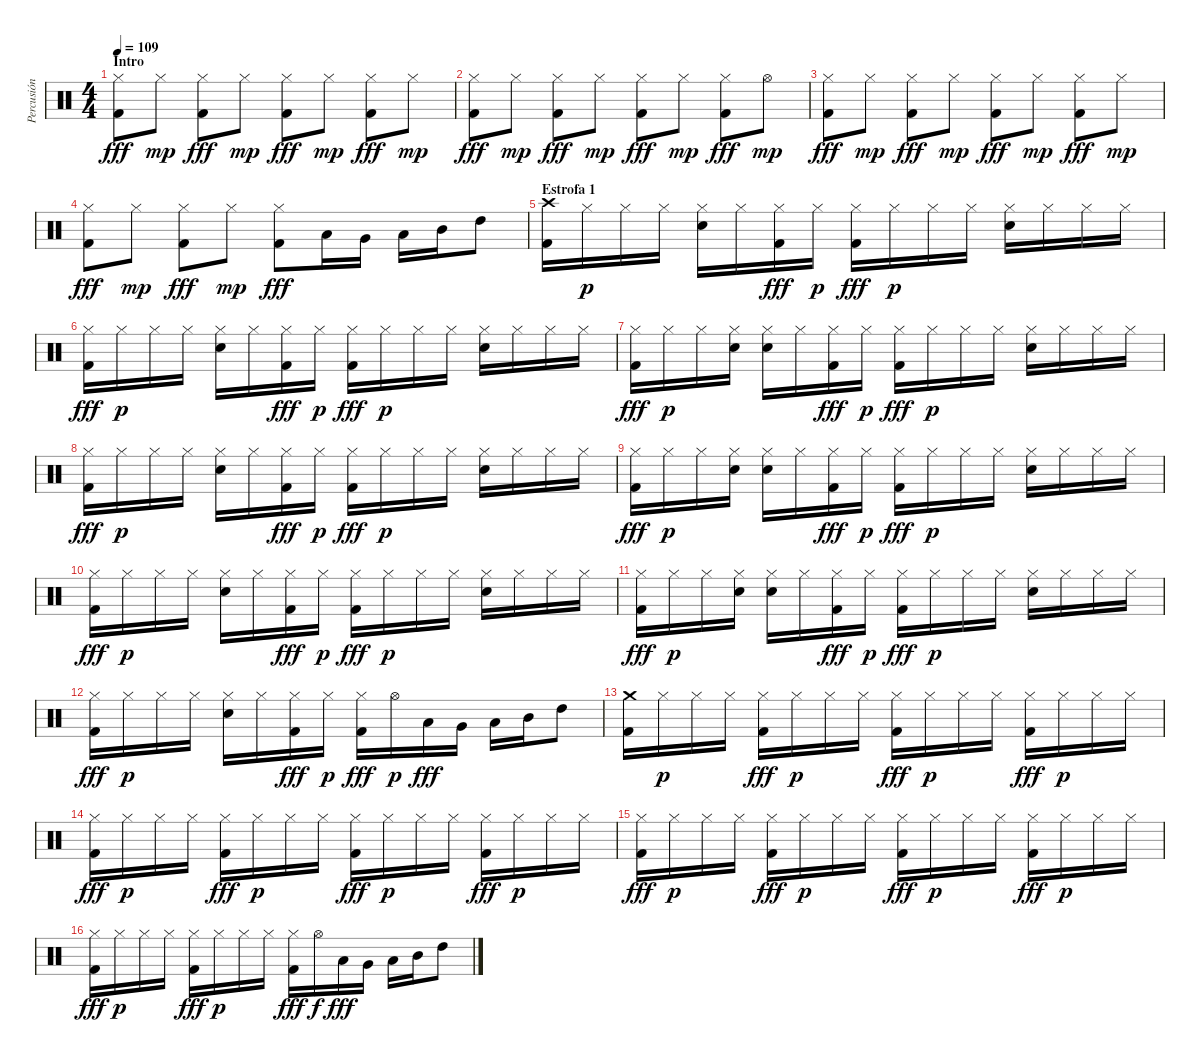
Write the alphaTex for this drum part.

\track ("Percusión" "Percusión") {instrument percussion}
\staff {score}
\articulation defaults
\ts (4 4)
\section ("" "Intro")
\tempo 109
\clef neutral
\ks c
("Hi-Hat (closed)" "Kick (hit) 2").8{dy fff} "Hi-Hat (closed)".8{dy mp} ("Hi-Hat (closed)" "Kick (hit) 2").8{dy fff} "Hi-Hat (closed)".8{dy mp} ("Hi-Hat (closed)" "Kick (hit) 2").8{dy fff} "Hi-Hat (closed)".8{dy mp} ("Hi-Hat (closed)" "Kick (hit) 2").8{dy fff} "Hi-Hat (closed)".8{dy mp} |
("Hi-Hat (closed)" "Kick (hit) 2").8{dy fff} "Hi-Hat (closed)".8{dy mp} ("Hi-Hat (closed)" "Kick (hit) 2").8{dy fff} "Hi-Hat (closed)".8{dy mp} ("Hi-Hat (closed)" "Kick (hit) 2").8{dy fff} "Hi-Hat (closed)".8{dy mp} ("Hi-Hat (closed)" "Kick (hit) 2").8{dy fff} "Hi-Hat (open)".8{dy mp} |
("Hi-Hat (closed)" "Kick (hit) 2").8{dy fff} "Hi-Hat (closed)".8{dy mp} ("Hi-Hat (closed)" "Kick (hit) 2").8{dy fff} "Hi-Hat (closed)".8{dy mp} ("Hi-Hat (closed)" "Kick (hit) 2").8{dy fff} "Hi-Hat (closed)".8{dy mp} ("Hi-Hat (closed)" "Kick (hit) 2").8{dy fff} "Hi-Hat (closed)".8{dy mp} |
("Hi-Hat (closed)" "Kick (hit) 2").8{dy fff} "Hi-Hat (closed)".8{dy mp} ("Hi-Hat (closed)" "Kick (hit) 2").8{dy fff} "Hi-Hat (closed)".8{dy mp} ("Hi-Hat (closed)" "Kick (hit) 2").8{dy fff} "Low Floor Tom (hit)".16 "Very Low Tom (hit)".16 "Low Tom (hit)".16 "Mid Tom (hit)".16 "High Tom (hit)".8 |
\section ("" "Estrofa 1")
("Crash high (hit)" "Kick (hit) 2").16 "Hi-Hat (closed)".16{dy p} "Hi-Hat (closed)".16 "Hi-Hat (closed)".16 ("Hi-Hat (closed)" "Snare (hit) 2").16 "Hi-Hat (closed)".16 ("Hi-Hat (closed)" "Kick (hit) 2").16{dy fff} "Hi-Hat (closed)".16{dy p} ("Hi-Hat (closed)" "Kick (hit) 2").16{dy fff} "Hi-Hat (closed)".16{dy p} "Hi-Hat (closed)".16 "Hi-Hat (closed)".16 ("Hi-Hat (closed)" "Snare (hit) 2").16 "Hi-Hat (closed)".16 "Hi-Hat (closed)".16 "Hi-Hat (closed)".16 |
("Hi-Hat (closed)" "Kick (hit) 2").16{dy fff} "Hi-Hat (closed)".16{dy p} "Hi-Hat (closed)".16 "Hi-Hat (closed)".16 ("Hi-Hat (closed)" "Snare (hit) 2").16 "Hi-Hat (closed)".16 ("Hi-Hat (closed)" "Kick (hit) 2").16{dy fff} "Hi-Hat (closed)".16{dy p} ("Hi-Hat (closed)" "Kick (hit) 2").16{dy fff} "Hi-Hat (closed)".16{dy p} "Hi-Hat (closed)".16 "Hi-Hat (closed)".16 ("Hi-Hat (closed)" "Snare (hit) 2").16 "Hi-Hat (closed)".16 "Hi-Hat (closed)".16 "Hi-Hat (closed)".16 |
("Hi-Hat (closed)" "Kick (hit) 2").16{dy fff} "Hi-Hat (closed)".16{dy p} "Hi-Hat (closed)".16 ("Hi-Hat (closed)" "Snare (hit) 2").16 ("Hi-Hat (closed)" "Snare (hit) 2").16 "Hi-Hat (closed)".16 ("Hi-Hat (closed)" "Kick (hit) 2").16{dy fff} "Hi-Hat (closed)".16{dy p} ("Hi-Hat (closed)" "Kick (hit) 2").16{dy fff} "Hi-Hat (closed)".16{dy p} "Hi-Hat (closed)".16 "Hi-Hat (closed)".16 ("Hi-Hat (closed)" "Snare (hit) 2").16 "Hi-Hat (closed)".16 "Hi-Hat (closed)".16 "Hi-Hat (closed)".16 |
("Hi-Hat (closed)" "Kick (hit) 2").16{dy fff} "Hi-Hat (closed)".16{dy p} "Hi-Hat (closed)".16 "Hi-Hat (closed)".16 ("Hi-Hat (closed)" "Snare (hit) 2").16 "Hi-Hat (closed)".16 ("Hi-Hat (closed)" "Kick (hit) 2").16{dy fff} "Hi-Hat (closed)".16{dy p} ("Hi-Hat (closed)" "Kick (hit) 2").16{dy fff} "Hi-Hat (closed)".16{dy p} "Hi-Hat (closed)".16 "Hi-Hat (closed)".16 ("Hi-Hat (closed)" "Snare (hit) 2").16 "Hi-Hat (closed)".16 "Hi-Hat (closed)".16 "Hi-Hat (closed)".16 |
("Hi-Hat (closed)" "Kick (hit) 2").16{dy fff} "Hi-Hat (closed)".16{dy p} "Hi-Hat (closed)".16 ("Hi-Hat (closed)" "Snare (hit) 2").16 ("Hi-Hat (closed)" "Snare (hit) 2").16 "Hi-Hat (closed)".16 ("Hi-Hat (closed)" "Kick (hit) 2").16{dy fff} "Hi-Hat (closed)".16{dy p} ("Hi-Hat (closed)" "Kick (hit) 2").16{dy fff} "Hi-Hat (closed)".16{dy p} "Hi-Hat (closed)".16 "Hi-Hat (closed)".16 ("Hi-Hat (closed)" "Snare (hit) 2").16 "Hi-Hat (closed)".16 "Hi-Hat (closed)".16 "Hi-Hat (closed)".16 |
("Hi-Hat (closed)" "Kick (hit) 2").16{dy fff} "Hi-Hat (closed)".16{dy p} "Hi-Hat (closed)".16 "Hi-Hat (closed)".16 ("Hi-Hat (closed)" "Snare (hit) 2").16 "Hi-Hat (closed)".16 ("Hi-Hat (closed)" "Kick (hit) 2").16{dy fff} "Hi-Hat (closed)".16{dy p} ("Hi-Hat (closed)" "Kick (hit) 2").16{dy fff} "Hi-Hat (closed)".16{dy p} "Hi-Hat (closed)".16 "Hi-Hat (closed)".16 ("Hi-Hat (closed)" "Snare (hit) 2").16 "Hi-Hat (closed)".16 "Hi-Hat (closed)".16 "Hi-Hat (closed)".16 |
("Hi-Hat (closed)" "Kick (hit) 2").16{dy fff} "Hi-Hat (closed)".16{dy p} "Hi-Hat (closed)".16 ("Hi-Hat (closed)" "Snare (hit) 2").16 ("Hi-Hat (closed)" "Snare (hit) 2").16 "Hi-Hat (closed)".16 ("Hi-Hat (closed)" "Kick (hit) 2").16{dy fff} "Hi-Hat (closed)".16{dy p} ("Hi-Hat (closed)" "Kick (hit) 2").16{dy fff} "Hi-Hat (closed)".16{dy p} "Hi-Hat (closed)".16 "Hi-Hat (closed)".16 ("Hi-Hat (closed)" "Snare (hit) 2").16 "Hi-Hat (closed)".16 "Hi-Hat (closed)".16 "Hi-Hat (closed)".16 |
("Hi-Hat (closed)" "Kick (hit) 2").16{dy fff} "Hi-Hat (closed)".16{dy p} "Hi-Hat (closed)".16 "Hi-Hat (closed)".16 ("Hi-Hat (closed)" "Snare (hit) 2").16 "Hi-Hat (closed)".16 ("Hi-Hat (closed)" "Kick (hit) 2").16{dy fff} "Hi-Hat (closed)".16{dy p} ("Hi-Hat (closed)" "Kick (hit) 2").16{dy fff} "Hi-Hat (open)".16{dy p} "Low Floor Tom (hit)".16{dy fff} "Very Low Tom (hit)".16 "Low Tom (hit)".16 "Mid Tom (hit)".16 "High Tom (hit)".8 |
("Crash medium (hit)" "Kick (hit) 2").16 "Hi-Hat (closed)".16{dy p} "Hi-Hat (closed)".16 "Hi-Hat (closed)".16 ("Hi-Hat (closed)" "Kick (hit) 2").16{dy fff} "Hi-Hat (closed)".16{dy p} "Hi-Hat (closed)".16 "Hi-Hat (closed)".16 ("Hi-Hat (closed)" "Kick (hit) 2").16{dy fff} "Hi-Hat (closed)".16{dy p} "Hi-Hat (closed)".16 "Hi-Hat (closed)".16 ("Hi-Hat (closed)" "Kick (hit) 2").16{dy fff} "Hi-Hat (closed)".16{dy p} "Hi-Hat (closed)".16 "Hi-Hat (closed)".16 |
("Hi-Hat (closed)" "Kick (hit) 2").16{dy fff} "Hi-Hat (closed)".16{dy p} "Hi-Hat (closed)".16 "Hi-Hat (closed)".16 ("Hi-Hat (closed)" "Kick (hit) 2").16{dy fff} "Hi-Hat (closed)".16{dy p} "Hi-Hat (closed)".16 "Hi-Hat (closed)".16 ("Hi-Hat (closed)" "Kick (hit) 2").16{dy fff} "Hi-Hat (closed)".16{dy p} "Hi-Hat (closed)".16 "Hi-Hat (closed)".16 ("Hi-Hat (closed)" "Kick (hit) 2").16{dy fff} "Hi-Hat (closed)".16{dy p} "Hi-Hat (closed)".16 "Hi-Hat (closed)".16 |
("Hi-Hat (closed)" "Kick (hit) 2").16{dy fff} "Hi-Hat (closed)".16{dy p} "Hi-Hat (closed)".16 "Hi-Hat (closed)".16 ("Hi-Hat (closed)" "Kick (hit) 2").16{dy fff} "Hi-Hat (closed)".16{dy p} "Hi-Hat (closed)".16 "Hi-Hat (closed)".16 ("Hi-Hat (closed)" "Kick (hit) 2").16{dy fff} "Hi-Hat (closed)".16{dy p} "Hi-Hat (closed)".16 "Hi-Hat (closed)".16 ("Hi-Hat (closed)" "Kick (hit) 2").16{dy fff} "Hi-Hat (closed)".16{dy p} "Hi-Hat (closed)".16 "Hi-Hat (closed)".16 |
("Hi-Hat (closed)" "Kick (hit) 2").16{dy fff} "Hi-Hat (closed)".16{dy p} "Hi-Hat (closed)".16 "Hi-Hat (closed)".16 ("Hi-Hat (closed)" "Kick (hit) 2").16{dy fff} "Hi-Hat (closed)".16{dy p} "Hi-Hat (closed)".16 "Hi-Hat (closed)".16 ("Hi-Hat (closed)" "Kick (hit) 2").16{dy fff} "Hi-Hat (open)".16{dy f} "Low Floor Tom (hit)".16{dy fff} "Very Low Tom (hit)".16 "Low Tom (hit)".16 "Mid Tom (hit)".16 "High Tom (hit)".8
